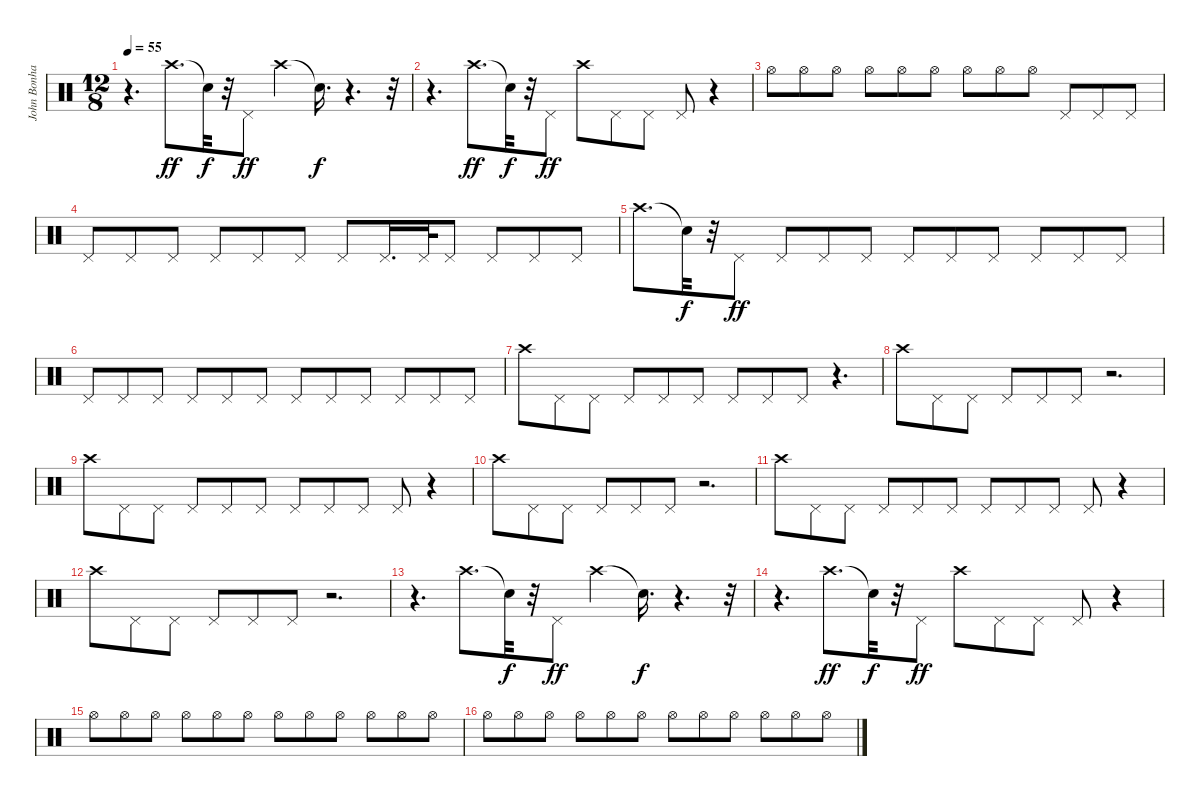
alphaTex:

\track ("John Bonham - Drums" "John Bonha") {instrument percussion}
\staff {score}
\articulation defaults
\ts (12 8)
\tempo 55
\clef neutral
\ks c
r.4{d dy ff} "Crash high (hit)".8{d} "Snare (hit)"{t}.32{dy f} r.32 "Pedal Hi-Hat (hit)".8{dy ff} "Crash high (hit)".4 "Snare (hit)"{t}.16{d dy f} r.4{d} r.32 |
r.4{d} "Crash high (hit)".8{d dy ff} "Snare (hit)"{t}.32{dy f} r.32 "Pedal Hi-Hat (hit)".8{dy ff} "Crash high (hit)".8 "Pedal Hi-Hat (hit)".8 "Pedal Hi-Hat (hit)".8 "Pedal Hi-Hat (hit)".8 r.4 |
"Hi-Hat (open)".8 "Hi-Hat (open)".8 "Hi-Hat (open)".8 "Hi-Hat (open)".8 "Hi-Hat (open)".8 "Hi-Hat (open)".8 "Hi-Hat (open)".8 "Hi-Hat (open)".8 "Hi-Hat (open)".8 "Pedal Hi-Hat (hit)".8 "Pedal Hi-Hat (hit)".8 "Pedal Hi-Hat (hit)".8 |
"Pedal Hi-Hat (hit)".8 "Pedal Hi-Hat (hit)".8 "Pedal Hi-Hat (hit)".8 "Pedal Hi-Hat (hit)".8 "Pedal Hi-Hat (hit)".8 "Pedal Hi-Hat (hit)".8 "Pedal Hi-Hat (hit)".8 "Pedal Hi-Hat (hit)".16{d} "Pedal Hi-Hat (hit)".32 "Pedal Hi-Hat (hit)".8 "Pedal Hi-Hat (hit)".8 "Pedal Hi-Hat (hit)".8 "Pedal Hi-Hat (hit)".8 |
"Crash high (hit)".8{d} "Snare (hit)"{t}.32{dy f} r.32 "Pedal Hi-Hat (hit)".8{dy ff} "Pedal Hi-Hat (hit)".8 "Pedal Hi-Hat (hit)".8 "Pedal Hi-Hat (hit)".8 "Pedal Hi-Hat (hit)".8 "Pedal Hi-Hat (hit)".8 "Pedal Hi-Hat (hit)".8 "Pedal Hi-Hat (hit)".8 "Pedal Hi-Hat (hit)".8 "Pedal Hi-Hat (hit)".8 |
"Pedal Hi-Hat (hit)".8 "Pedal Hi-Hat (hit)".8 "Pedal Hi-Hat (hit)".8 "Pedal Hi-Hat (hit)".8 "Pedal Hi-Hat (hit)".8 "Pedal Hi-Hat (hit)".8 "Pedal Hi-Hat (hit)".8 "Pedal Hi-Hat (hit)".8 "Pedal Hi-Hat (hit)".8 "Pedal Hi-Hat (hit)".8 "Pedal Hi-Hat (hit)".8 "Pedal Hi-Hat (hit)".8 |
"Crash high (hit)".8 "Pedal Hi-Hat (hit)".8 "Pedal Hi-Hat (hit)".8 "Pedal Hi-Hat (hit)".8 "Pedal Hi-Hat (hit)".8 "Pedal Hi-Hat (hit)".8 "Pedal Hi-Hat (hit)".8 "Pedal Hi-Hat (hit)".8 "Pedal Hi-Hat (hit)".8 r.4{d} |
"Crash high (hit)".8 "Pedal Hi-Hat (hit)".8 "Pedal Hi-Hat (hit)".8 "Pedal Hi-Hat (hit)".8 "Pedal Hi-Hat (hit)".8 "Pedal Hi-Hat (hit)".8 r.2{d} |
"Crash high (hit)".8 "Pedal Hi-Hat (hit)".8 "Pedal Hi-Hat (hit)".8 "Pedal Hi-Hat (hit)".8 "Pedal Hi-Hat (hit)".8 "Pedal Hi-Hat (hit)".8 "Pedal Hi-Hat (hit)".8 "Pedal Hi-Hat (hit)".8 "Pedal Hi-Hat (hit)".8 "Pedal Hi-Hat (hit)".8 r.4 |
"Crash high (hit)".8 "Pedal Hi-Hat (hit)".8 "Pedal Hi-Hat (hit)".8 "Pedal Hi-Hat (hit)".8 "Pedal Hi-Hat (hit)".8 "Pedal Hi-Hat (hit)".8 r.2{d} |
"Crash high (hit)".8 "Pedal Hi-Hat (hit)".8 "Pedal Hi-Hat (hit)".8 "Pedal Hi-Hat (hit)".8 "Pedal Hi-Hat (hit)".8 "Pedal Hi-Hat (hit)".8 "Pedal Hi-Hat (hit)".8 "Pedal Hi-Hat (hit)".8 "Pedal Hi-Hat (hit)".8 "Pedal Hi-Hat (hit)".8 r.4 |
"Crash high (hit)".8 "Pedal Hi-Hat (hit)".8 "Pedal Hi-Hat (hit)".8 "Pedal Hi-Hat (hit)".8 "Pedal Hi-Hat (hit)".8 "Pedal Hi-Hat (hit)".8 r.2{d} |
r.4{d} "Crash high (hit)".8{d} "Snare (hit)"{t}.32{dy f} r.32 "Pedal Hi-Hat (hit)".8{dy ff} "Crash high (hit)".4 "Snare (hit)"{t}.16{d dy f} r.4{d} r.32 |
r.4{d} "Crash high (hit)".8{d dy ff} "Snare (hit)"{t}.32{dy f} r.32 "Pedal Hi-Hat (hit)".8{dy ff} "Crash high (hit)".8 "Pedal Hi-Hat (hit)".8 "Pedal Hi-Hat (hit)".8 "Pedal Hi-Hat (hit)".8 r.4 |
"Hi-Hat (open)".8 "Hi-Hat (open)".8 "Hi-Hat (open)".8 "Hi-Hat (open)".8 "Hi-Hat (open)".8 "Hi-Hat (open)".8 "Hi-Hat (open)".8 "Hi-Hat (open)".8 "Hi-Hat (open)".8 "Hi-Hat (open)".8 "Hi-Hat (open)".8 "Hi-Hat (open)".8 |
"Hi-Hat (open)".8 "Hi-Hat (open)".8 "Hi-Hat (open)".8 "Hi-Hat (open)".8 "Hi-Hat (open)".8 "Hi-Hat (open)".8 "Hi-Hat (open)".8 "Hi-Hat (open)".8 "Hi-Hat (open)".8 "Hi-Hat (open)".8 "Hi-Hat (open)".8 "Hi-Hat (open)".8
